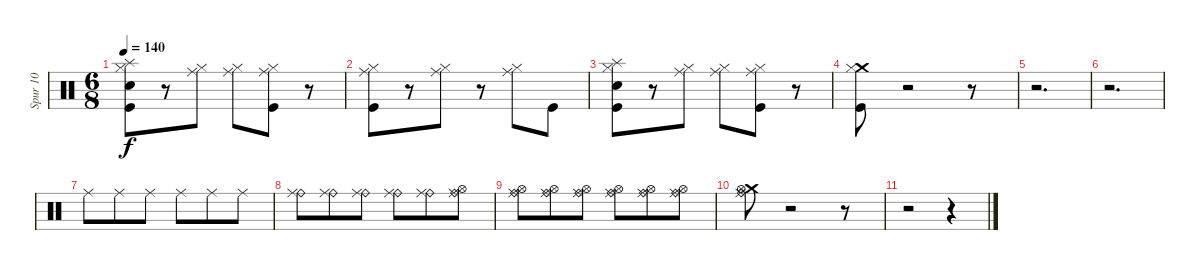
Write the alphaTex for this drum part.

\track ("Spur 10" "Spur 10") {instrument percussion}
\staff {score}
\articulation defaults
\ts (6 8)
\tempo 140
\clef neutral
\ks c
("Kick (hit)" "Snare (hit) 2" "Splash (hit)" "Hi-Hat (closed)").8{dy f} r.8 ("Ride (middle)" "Hi-Hat (closed)").8 ("Ride (middle)" "Hi-Hat (closed)").8 ("Ride (middle)" "Kick (hit)" "Hi-Hat (closed)").8 r.8 |
("Ride (middle)" "Kick (hit)" "Hi-Hat (closed)").8 r.8 ("Ride (middle)" "Hi-Hat (closed)").8 r.8 ("Ride (middle)" "Hi-Hat (closed)").8 "Kick (hit)".8 |
("Kick (hit)" "Snare (hit) 2" "Splash (hit)" "Hi-Hat (closed)").8 r.8 ("Ride (middle)" "Hi-Hat (closed)").8 ("Ride (middle)" "Hi-Hat (closed)").8 ("Ride (middle)" "Kick (hit)" "Hi-Hat (closed)").8 r.8 |
("Crash medium (hit)" "Kick (hit)" "Hi-Hat (closed)").8 r.2 r.8 |
r.2{d} |
r.2{d} |
"Ride (middle)".8 "Ride (middle)".8 "Ride (middle)".8 "Ride (middle)".8 "Ride (middle)".8 "Ride (middle)".8 |
("Ride (bell)" "Ride (middle)").8 ("Ride (bell)" "Ride (middle)").8 ("Ride (bell)" "Ride (middle)").8 ("Ride (bell)" "Ride (middle)").8 ("Ride (bell)" "Ride (middle)").8 ("Hi-Hat (open)" "Ride (bell)" "Ride (middle)").8 |
("Hi-Hat (open)" "Ride (bell)" "Ride (middle)").8 ("Hi-Hat (open)" "Ride (bell)" "Ride (middle)").8 ("Hi-Hat (open)" "Ride (bell)" "Ride (middle)").8 ("Hi-Hat (open)" "Ride (bell)" "Ride (middle)").8 ("Hi-Hat (open)" "Ride (bell)" "Ride (middle)").8 ("Hi-Hat (open)" "Ride (bell)" "Ride (middle)").8 |
("Crash medium (hit)" "Ride (bell)" "Hi-Hat (open)" "Ride (middle)").8 r.2 r.8 |
r.2 r.4
